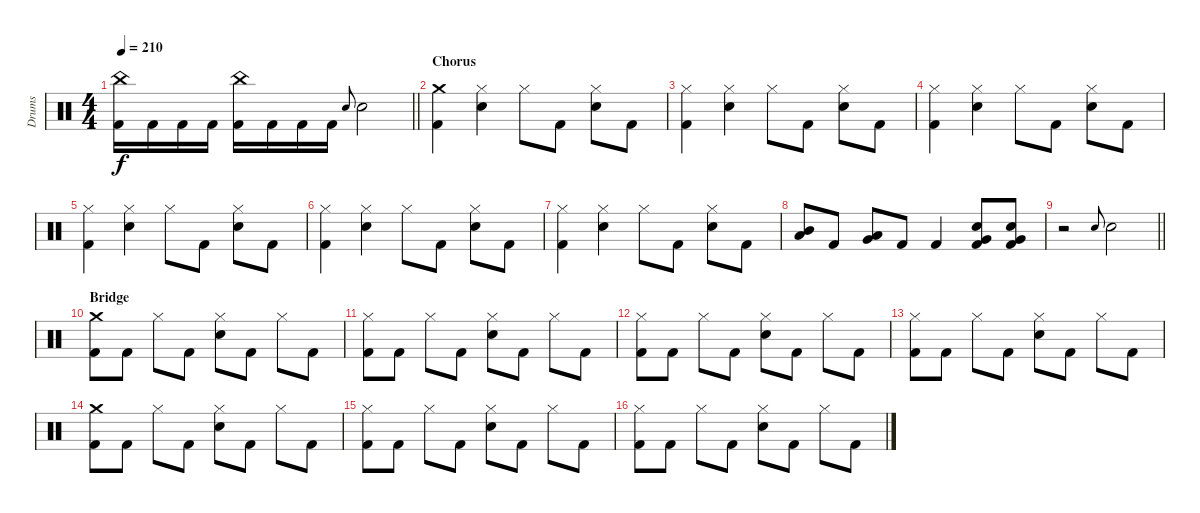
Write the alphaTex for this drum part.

\track ("Drums" "Drums") {instrument percussion}
\staff {score}
\articulation defaults
\ts (4 4)
\tempo 210
\clef neutral
\barLineRight lightlight
\ks c
("Kick (hit) 2" "China (hit)").16{dy f} "Kick (hit) 2".16 "Kick (hit) 2".16 "Kick (hit) 2".16 ("Kick (hit) 2" "China (hit)").16 "Kick (hit) 2".16 "Kick (hit) 2".16 "Kick (hit) 2".16 "Snare (hit) 2".8{gr onbeat} "Snare (hit) 2".2 |
\section ("" "Chorus")
("Kick (hit) 2" "Crash medium (hit)").4 ("Snare (hit) 2" "Hi-Hat (closed)").4 "Hi-Hat (closed)".8 "Kick (hit) 2".8 ("Snare (hit) 2" "Hi-Hat (closed)").8 "Kick (hit) 2".8 |
("Kick (hit) 2" "Hi-Hat (closed)").4 ("Snare (hit) 2" "Hi-Hat (closed)").4 "Hi-Hat (closed)".8 "Kick (hit) 2".8 ("Snare (hit) 2" "Hi-Hat (closed)").8 "Kick (hit) 2".8 |
("Kick (hit) 2" "Hi-Hat (closed)").4 ("Snare (hit) 2" "Hi-Hat (closed)").4 "Hi-Hat (closed)".8 "Kick (hit) 2".8 ("Snare (hit) 2" "Hi-Hat (closed)").8 "Kick (hit) 2".8 |
("Kick (hit) 2" "Hi-Hat (closed)").4 ("Snare (hit) 2" "Hi-Hat (closed)").4 "Hi-Hat (closed)".8 "Kick (hit) 2".8 ("Snare (hit) 2" "Hi-Hat (closed)").8 "Kick (hit) 2".8 |
("Kick (hit) 2" "Hi-Hat (closed)").4 ("Snare (hit) 2" "Hi-Hat (closed)").4 "Hi-Hat (closed)".8 "Kick (hit) 2".8 ("Snare (hit) 2" "Hi-Hat (closed)").8 "Kick (hit) 2".8 |
("Kick (hit) 2" "Hi-Hat (closed)").4 ("Snare (hit) 2" "Hi-Hat (closed)").4 "Hi-Hat (closed)".8 "Kick (hit) 2".8 ("Snare (hit) 2" "Hi-Hat (closed)").8 "Kick (hit) 2".8 |
("Mid Tom (hit)" "Low Tom (hit)").8 "Kick (hit) 2".8 ("Low Tom (hit)" "Very Low Tom (hit)").8 "Kick (hit) 2".8 "Kick (hit) 2".4 ("Kick (hit) 2" "Very Low Tom (hit)" "Snare (hit) 2").8 ("Kick (hit) 2" "Very Low Tom (hit)" "Snare (hit) 2").8 |
\barLineRight lightlight
r.2 "Snare (hit) 2".8{gr onbeat} "Snare (hit) 2".2 |
\section ("" "Bridge")
("Kick (hit) 2" "Crash medium (hit)").8 "Kick (hit) 2".8 "Hi-Hat (closed)".8 "Kick (hit) 2".8 ("Snare (hit) 2" "Hi-Hat (closed)").8 "Kick (hit) 2".8 "Hi-Hat (closed)".8 "Kick (hit) 2".8 |
("Kick (hit) 2" "Hi-Hat (closed)").8 "Kick (hit) 2".8 "Hi-Hat (closed)".8 "Kick (hit) 2".8 ("Snare (hit) 2" "Hi-Hat (closed)").8 "Kick (hit) 2".8 "Hi-Hat (closed)".8 "Kick (hit) 2".8 |
("Kick (hit) 2" "Hi-Hat (closed)").8 "Kick (hit) 2".8 "Hi-Hat (closed)".8 "Kick (hit) 2".8 ("Snare (hit) 2" "Hi-Hat (closed)").8 "Kick (hit) 2".8 "Hi-Hat (closed)".8 "Kick (hit) 2".8 |
("Kick (hit) 2" "Hi-Hat (closed)").8 "Kick (hit) 2".8 "Hi-Hat (closed)".8 "Kick (hit) 2".8 ("Snare (hit) 2" "Hi-Hat (closed)").8 "Kick (hit) 2".8 "Hi-Hat (closed)".8 "Kick (hit) 2".8 |
("Kick (hit) 2" "Crash medium (hit)").8 "Kick (hit) 2".8 "Hi-Hat (closed)".8 "Kick (hit) 2".8 ("Snare (hit) 2" "Hi-Hat (closed)").8 "Kick (hit) 2".8 "Hi-Hat (closed)".8 "Kick (hit) 2".8 |
("Kick (hit) 2" "Hi-Hat (closed)").8 "Kick (hit) 2".8 "Hi-Hat (closed)".8 "Kick (hit) 2".8 ("Snare (hit) 2" "Hi-Hat (closed)").8 "Kick (hit) 2".8 "Hi-Hat (closed)".8 "Kick (hit) 2".8 |
("Kick (hit) 2" "Hi-Hat (closed)").8 "Kick (hit) 2".8 "Hi-Hat (closed)".8 "Kick (hit) 2".8 ("Snare (hit) 2" "Hi-Hat (closed)").8 "Kick (hit) 2".8 "Hi-Hat (closed)".8 "Kick (hit) 2".8
